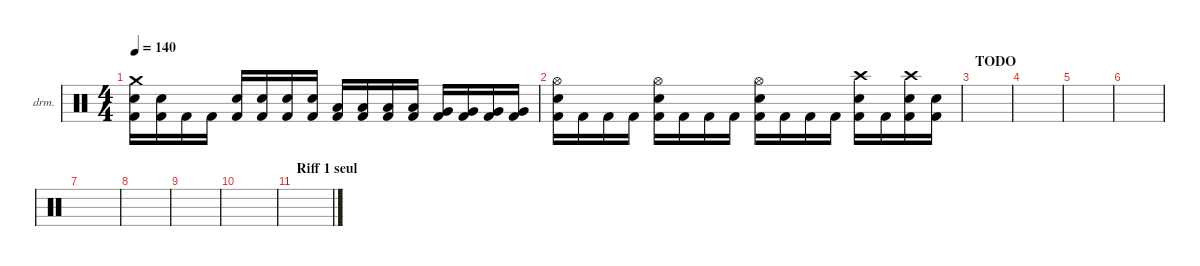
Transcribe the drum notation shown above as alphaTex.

\defaultSystemsLayout 4
\hideDynamics
\bracketExtendMode nobrackets
\firstSystemTrackNameOrientation horizontal
\otherSystemsTrackNameOrientation horizontal
\track ("Drumkit" "drm.") {instrument percussion}
\staff {score}
\articulation defaults
\ts (4 4)
\tempo 140
\clef neutral
\ks c
("Crash medium (hit)" "Snare (hit) 2" "Kick (hit) 2").16{dy mf} ("Snare (hit) 2" "Kick (hit) 2").16 "Kick (hit) 2".16 "Kick (hit) 2".16 ("Snare (hit) 2" "Kick (hit) 2").16 ("Snare (hit) 2" "Kick (hit) 2").16 ("Snare (hit) 2" "Kick (hit) 2").16 ("Snare (hit) 2" "Kick (hit) 2").16 ("Low Tom (hit)" "Kick (hit) 2").16 ("Low Tom (hit)" "Kick (hit) 2").16 ("Low Tom (hit)" "Kick (hit) 2").16 ("Low Tom (hit)" "Kick (hit) 2").16 ("Very Low Tom (hit)" "Kick (hit) 2").16 ("Very Low Tom (hit)" "Kick (hit) 2").16 ("Very Low Tom (hit)" "Kick (hit) 2").16 ("Very Low Tom (hit)" "Kick (hit) 2").16 |
("Hi-Hat (open)" "Snare (hit) 2" "Kick (hit) 2").16 "Kick (hit) 2".16 "Kick (hit) 2".16 "Kick (hit) 2".16 ("Hi-Hat (open)" "Snare (hit) 2" "Kick (hit) 2").16 "Kick (hit) 2".16 "Kick (hit) 2".16 "Kick (hit) 2".16 ("Hi-Hat (open)" "Snare (hit) 2" "Kick (hit) 2").16 "Kick (hit) 2".16 "Kick (hit) 2".16 "Kick (hit) 2".16 ("Crash high (hit)" "Snare (hit) 2" "Kick (hit) 2").16 "Kick (hit) 2".16 ("Crash high (hit)" "Snare (hit) 2" "Kick (hit) 2").16 ("Snare (hit) 2" "Kick (hit) 2").16 |
\section ("" "TODO")
|
|
|
|
|
|
|
|
\section ("" "Riff 1 seul")
